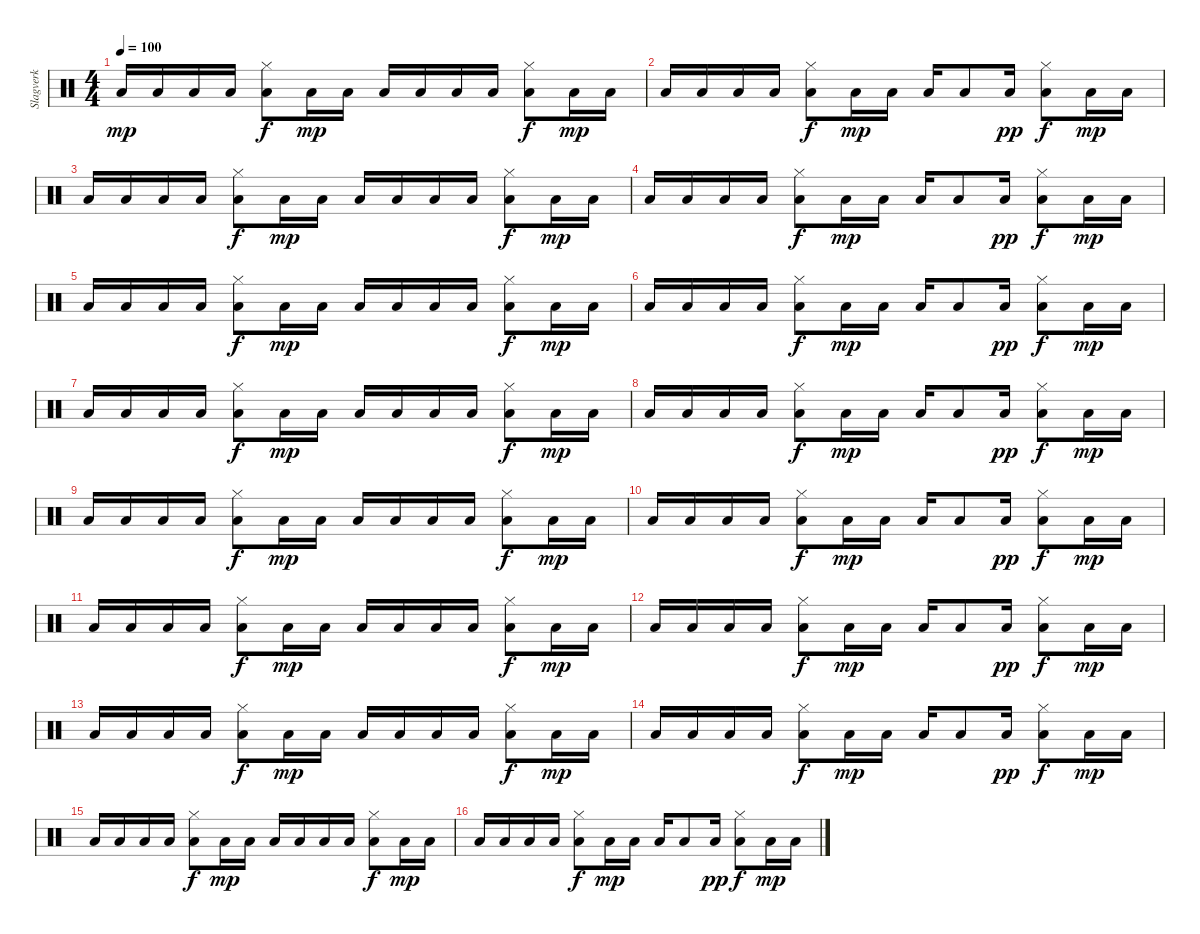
\track ("Slagverk" "Slagverk") {instrument percussion}
\staff {score}
\articulation defaults
\ts (4 4)
\tempo 100
\clef neutral
\ks c "Low Tom (hit)".16{dy mp} "Low Tom (hit)".16 "Low Tom (hit)".16 "Low Tom (hit)".16
("Low Floor Tom (hit)" "Hi-Hat (closed)").8{dy f} "Low Tom (hit)".16{dy mp} "Low Tom (hit)".16 "Low Tom (hit)".16 "Low Tom (hit)".16 "Low Tom (hit)".16 "Low Tom (hit)".16 ("Low Floor Tom (hit)" "Hi-Hat (closed)").8{dy f} "Low Tom (hit)".16{dy mp} "Low Tom (hit)".16 |
"Low Tom (hit)".16 "Low Tom (hit)".16 "Low Tom (hit)".16 "Low Tom (hit)".16 ("Low Floor Tom (hit)" "Hi-Hat (closed)").8{dy f} "Low Tom (hit)".16{dy mp} "Low Tom (hit)".16 "Low Tom (hit)".16 "Low Tom (hit)".8 "Low Tom (hit)".16{dy pp} ("Low Floor Tom (hit)" "Hi-Hat (closed)").8{dy f} "Low Tom (hit)".16{dy mp} "Low Tom (hit)".16 |
"Low Tom (hit)".16 "Low Tom (hit)".16 "Low Tom (hit)".16 "Low Tom (hit)".16 ("Low Floor Tom (hit)" "Hi-Hat (closed)").8{dy f} "Low Tom (hit)".16{dy mp} "Low Tom (hit)".16 "Low Tom (hit)".16 "Low Tom (hit)".16 "Low Tom (hit)".16 "Low Tom (hit)".16 ("Low Floor Tom (hit)" "Hi-Hat (closed)").8{dy f} "Low Tom (hit)".16{dy mp} "Low Tom (hit)".16 |
"Low Tom (hit)".16 "Low Tom (hit)".16 "Low Tom (hit)".16 "Low Tom (hit)".16 ("Low Floor Tom (hit)" "Hi-Hat (closed)").8{dy f} "Low Tom (hit)".16{dy mp} "Low Tom (hit)".16 "Low Tom (hit)".16 "Low Tom (hit)".8 "Low Tom (hit)".16{dy pp} ("Low Floor Tom (hit)" "Hi-Hat (closed)").8{dy f} "Low Tom (hit)".16{dy mp} "Low Tom (hit)".16 |
"Low Tom (hit)".16 "Low Tom (hit)".16 "Low Tom (hit)".16 "Low Tom (hit)".16 ("Low Floor Tom (hit)" "Hi-Hat (closed)").8{dy f} "Low Tom (hit)".16{dy mp} "Low Tom (hit)".16 "Low Tom (hit)".16 "Low Tom (hit)".16 "Low Tom (hit)".16 "Low Tom (hit)".16 ("Low Floor Tom (hit)" "Hi-Hat (closed)").8{dy f} "Low Tom (hit)".16{dy mp} "Low Tom (hit)".16 |
"Low Tom (hit)".16 "Low Tom (hit)".16 "Low Tom (hit)".16 "Low Tom (hit)".16 ("Low Floor Tom (hit)" "Hi-Hat (closed)").8{dy f} "Low Tom (hit)".16{dy mp} "Low Tom (hit)".16 "Low Tom (hit)".16 "Low Tom (hit)".8 "Low Tom (hit)".16{dy pp} ("Low Floor Tom (hit)" "Hi-Hat (closed)").8{dy f} "Low Tom (hit)".16{dy mp} "Low Tom (hit)".16 |
"Low Tom (hit)".16 "Low Tom (hit)".16 "Low Tom (hit)".16 "Low Tom (hit)".16 ("Low Floor Tom (hit)" "Hi-Hat (closed)").8{dy f} "Low Tom (hit)".16{dy mp} "Low Tom (hit)".16 "Low Tom (hit)".16 "Low Tom (hit)".16 "Low Tom (hit)".16 "Low Tom (hit)".16 ("Low Floor Tom (hit)" "Hi-Hat (closed)").8{dy f} "Low Tom (hit)".16{dy mp} "Low Tom (hit)".16 |
"Low Tom (hit)".16 "Low Tom (hit)".16 "Low Tom (hit)".16 "Low Tom (hit)".16 ("Low Floor Tom (hit)" "Hi-Hat (closed)").8{dy f} "Low Tom (hit)".16{dy mp} "Low Tom (hit)".16 "Low Tom (hit)".16 "Low Tom (hit)".8 "Low Tom (hit)".16{dy pp} ("Low Floor Tom (hit)" "Hi-Hat (closed)").8{dy f} "Low Tom (hit)".16{dy mp} "Low Tom (hit)".16 |
"Low Tom (hit)".16 "Low Tom (hit)".16 "Low Tom (hit)".16 "Low Tom (hit)".16 ("Low Floor Tom (hit)" "Hi-Hat (closed)").8{dy f} "Low Tom (hit)".16{dy mp} "Low Tom (hit)".16 "Low Tom (hit)".16 "Low Tom (hit)".16 "Low Tom (hit)".16 "Low Tom (hit)".16 ("Low Floor Tom (hit)" "Hi-Hat (closed)").8{dy f} "Low Tom (hit)".16{dy mp} "Low Tom (hit)".16 |
"Low Tom (hit)".16 "Low Tom (hit)".16 "Low Tom (hit)".16 "Low Tom (hit)".16 ("Low Floor Tom (hit)" "Hi-Hat (closed)").8{dy f} "Low Tom (hit)".16{dy mp} "Low Tom (hit)".16 "Low Tom (hit)".16 "Low Tom (hit)".8 "Low Tom (hit)".16{dy pp} ("Low Floor Tom (hit)" "Hi-Hat (closed)").8{dy f} "Low Tom (hit)".16{dy mp} "Low Tom (hit)".16 |
"Low Tom (hit)".16 "Low Tom (hit)".16 "Low Tom (hit)".16 "Low Tom (hit)".16 ("Low Floor Tom (hit)" "Hi-Hat (closed)").8{dy f} "Low Tom (hit)".16{dy mp} "Low Tom (hit)".16 "Low Tom (hit)".16 "Low Tom (hit)".16 "Low Tom (hit)".16 "Low Tom (hit)".16 ("Low Floor Tom (hit)" "Hi-Hat (closed)").8{dy f} "Low Tom (hit)".16{dy mp} "Low Tom (hit)".16 |
"Low Tom (hit)".16 "Low Tom (hit)".16 "Low Tom (hit)".16 "Low Tom (hit)".16 ("Low Floor Tom (hit)" "Hi-Hat (closed)").8{dy f} "Low Tom (hit)".16{dy mp} "Low Tom (hit)".16 "Low Tom (hit)".16 "Low Tom (hit)".8 "Low Tom (hit)".16{dy pp} ("Low Floor Tom (hit)" "Hi-Hat (closed)").8{dy f} "Low Tom (hit)".16{dy mp} "Low Tom (hit)".16 |
"Low Tom (hit)".16 "Low Tom (hit)".16 "Low Tom (hit)".16 "Low Tom (hit)".16 ("Low Floor Tom (hit)" "Hi-Hat (closed)").8{dy f} "Low Tom (hit)".16{dy mp} "Low Tom (hit)".16 "Low Tom (hit)".16 "Low Tom (hit)".16 "Low Tom (hit)".16 "Low Tom (hit)".16 ("Low Floor Tom (hit)" "Hi-Hat (closed)").8{dy f} "Low Tom (hit)".16{dy mp} "Low Tom (hit)".16 |
"Low Tom (hit)".16 "Low Tom (hit)".16 "Low Tom (hit)".16 "Low Tom (hit)".16 ("Low Floor Tom (hit)" "Hi-Hat (closed)").8{dy f} "Low Tom (hit)".16{dy mp} "Low Tom (hit)".16 "Low Tom (hit)".16 "Low Tom (hit)".8 "Low Tom (hit)".16{dy pp} ("Low Floor Tom (hit)" "Hi-Hat (closed)").8{dy f} "Low Tom (hit)".16{dy mp} "Low Tom (hit)".16 |
"Low Tom (hit)".16 "Low Tom (hit)".16 "Low Tom (hit)".16 "Low Tom (hit)".16 ("Low Floor Tom (hit)" "Hi-Hat (closed)").8{dy f} "Low Tom (hit)".16{dy mp} "Low Tom (hit)".16 "Low Tom (hit)".16 "Low Tom (hit)".16 "Low Tom (hit)".16 "Low Tom (hit)".16 ("Low Floor Tom (hit)" "Hi-Hat (closed)").8{dy f} "Low Tom (hit)".16{dy mp} "Low Tom (hit)".16 |
"Low Tom (hit)".16 "Low Tom (hit)".16 "Low Tom (hit)".16 "Low Tom (hit)".16 ("Low Floor Tom (hit)" "Hi-Hat (closed)").8{dy f} "Low Tom (hit)".16{dy mp} "Low Tom (hit)".16 "Low Tom (hit)".16 "Low Tom (hit)".8 "Low Tom (hit)".16{dy pp} ("Low Floor Tom (hit)" "Hi-Hat (closed)").8{dy f} "Low Tom (hit)".16{dy mp} "Low Tom (hit)".16
